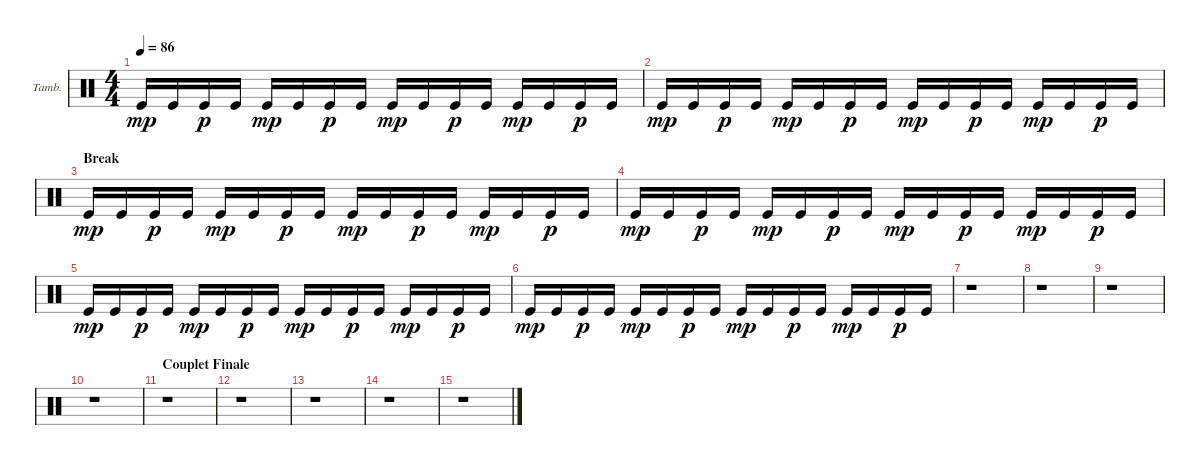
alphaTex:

\bracketExtendMode groupsimilarinstruments
\firstSystemTrackNameOrientation horizontal
\otherSystemsTrackNameOrientation horizontal
\track ("Tambourine" "Tamb.") {instrument percussion}
\staff {score}
\articulation defaults
\ts (4 4)
\tempo 86
\clef neutral
\ks c "Kick (hit)".16{dy mp} "Kick (hit)".16 "Kick (hit)".16{dy p} "Kick (hit)".16 "Kick (hit)".16{dy mp} "Kick (hit)".16 "Kick (hit)".16{dy p} "Kick (hit)".16 "Kick (hit)".16{dy mp} "Kick (hit)".16 "Kick (hit)".16{dy p} "Kick (hit)".16 "Kick (hit)".16{dy mp} "Kick (hit)".16 "Kick (hit)".16{dy p} "Kick (hit)".16
|
"Kick (hit)".16{dy mp} "Kick (hit)".16 "Kick (hit)".16{dy p} "Kick (hit)".16 "Kick (hit)".16{dy mp} "Kick (hit)".16 "Kick (hit)".16{dy p} "Kick (hit)".16 "Kick (hit)".16{dy mp} "Kick (hit)".16 "Kick (hit)".16{dy p} "Kick (hit)".16 "Kick (hit)".16{dy mp} "Kick (hit)".16 "Kick (hit)".16{dy p} "Kick (hit)".16 |
\section ("" "Break")
"Kick (hit)".16{dy mp} "Kick (hit)".16 "Kick (hit)".16{dy p} "Kick (hit)".16 "Kick (hit)".16{dy mp} "Kick (hit)".16 "Kick (hit)".16{dy p} "Kick (hit)".16 "Kick (hit)".16{dy mp} "Kick (hit)".16 "Kick (hit)".16{dy p} "Kick (hit)".16 "Kick (hit)".16{dy mp} "Kick (hit)".16 "Kick (hit)".16{dy p} "Kick (hit)".16 |
"Kick (hit)".16{dy mp} "Kick (hit)".16 "Kick (hit)".16{dy p} "Kick (hit)".16 "Kick (hit)".16{dy mp} "Kick (hit)".16 "Kick (hit)".16{dy p} "Kick (hit)".16 "Kick (hit)".16{dy mp} "Kick (hit)".16 "Kick (hit)".16{dy p} "Kick (hit)".16 "Kick (hit)".16{dy mp} "Kick (hit)".16 "Kick (hit)".16{dy p} "Kick (hit)".16 |
"Kick (hit)".16{dy mp} "Kick (hit)".16 "Kick (hit)".16{dy p} "Kick (hit)".16 "Kick (hit)".16{dy mp} "Kick (hit)".16 "Kick (hit)".16{dy p} "Kick (hit)".16 "Kick (hit)".16{dy mp} "Kick (hit)".16 "Kick (hit)".16{dy p} "Kick (hit)".16 "Kick (hit)".16{dy mp} "Kick (hit)".16 "Kick (hit)".16{dy p} "Kick (hit)".16 |
"Kick (hit)".16{dy mp} "Kick (hit)".16 "Kick (hit)".16{dy p} "Kick (hit)".16 "Kick (hit)".16{dy mp} "Kick (hit)".16 "Kick (hit)".16{dy p} "Kick (hit)".16 "Kick (hit)".16{dy mp} "Kick (hit)".16 "Kick (hit)".16{dy p} "Kick (hit)".16 "Kick (hit)".16{dy mp} "Kick (hit)".16 "Kick (hit)".16{dy p} "Kick (hit)".16 |
r.1 |
r.1 |
r.1 |
r.1 |
\section ("" "Couplet Finale")
r.1 |
r.1 |
r.1 |
r.1 |
r.1
